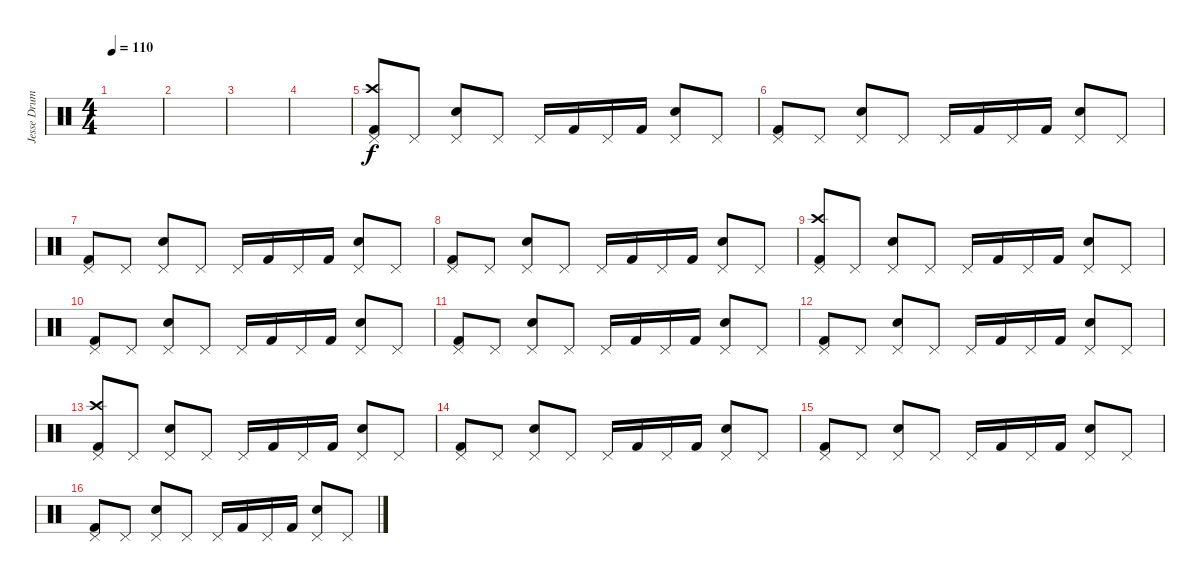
\track ("Jesse Drums" "Jesse Drum") {instrument percussion}
\staff {score}
\articulation defaults
\ts (4 4)
\tempo 110
\clef neutral
\ks c
|
|
|
|
("Pedal Hi-Hat (hit)" "Crash high (hit)" "Kick (hit) 2").8 "Pedal Hi-Hat (hit)".8 ("Pedal Hi-Hat (hit)" "Electric Snare (hit)").8 "Pedal Hi-Hat (hit)".8 "Pedal Hi-Hat (hit)".16 "Kick (hit) 2".16 "Pedal Hi-Hat (hit)".16 "Kick (hit) 2".16 ("Pedal Hi-Hat (hit)" "Electric Snare (hit)").8 "Pedal Hi-Hat (hit)".8 |
("Pedal Hi-Hat (hit)" "Kick (hit) 2").8 "Pedal Hi-Hat (hit)".8 ("Pedal Hi-Hat (hit)" "Electric Snare (hit)").8 "Pedal Hi-Hat (hit)".8 "Pedal Hi-Hat (hit)".16 "Kick (hit) 2".16 "Pedal Hi-Hat (hit)".16 "Kick (hit) 2".16 ("Pedal Hi-Hat (hit)" "Electric Snare (hit)").8 "Pedal Hi-Hat (hit)".8 |
("Pedal Hi-Hat (hit)" "Kick (hit) 2").8 "Pedal Hi-Hat (hit)".8 ("Pedal Hi-Hat (hit)" "Electric Snare (hit)").8 "Pedal Hi-Hat (hit)".8 "Pedal Hi-Hat (hit)".16 "Kick (hit) 2".16 "Pedal Hi-Hat (hit)".16 "Kick (hit) 2".16 ("Pedal Hi-Hat (hit)" "Electric Snare (hit)").8 "Pedal Hi-Hat (hit)".8 |
("Pedal Hi-Hat (hit)" "Kick (hit) 2").8 "Pedal Hi-Hat (hit)".8 ("Pedal Hi-Hat (hit)" "Electric Snare (hit)").8 "Pedal Hi-Hat (hit)".8 "Pedal Hi-Hat (hit)".16 "Kick (hit) 2".16 "Pedal Hi-Hat (hit)".16 "Kick (hit) 2".16 ("Pedal Hi-Hat (hit)" "Electric Snare (hit)").8 "Pedal Hi-Hat (hit)".8 |
("Pedal Hi-Hat (hit)" "Crash high (hit)" "Kick (hit) 2").8 "Pedal Hi-Hat (hit)".8 ("Pedal Hi-Hat (hit)" "Electric Snare (hit)").8 "Pedal Hi-Hat (hit)".8 "Pedal Hi-Hat (hit)".16 "Kick (hit) 2".16 "Pedal Hi-Hat (hit)".16 "Kick (hit) 2".16 ("Pedal Hi-Hat (hit)" "Electric Snare (hit)").8 "Pedal Hi-Hat (hit)".8 |
("Pedal Hi-Hat (hit)" "Kick (hit) 2").8 "Pedal Hi-Hat (hit)".8 ("Pedal Hi-Hat (hit)" "Electric Snare (hit)").8 "Pedal Hi-Hat (hit)".8 "Pedal Hi-Hat (hit)".16 "Kick (hit) 2".16 "Pedal Hi-Hat (hit)".16 "Kick (hit) 2".16 ("Pedal Hi-Hat (hit)" "Electric Snare (hit)").8 "Pedal Hi-Hat (hit)".8 |
("Pedal Hi-Hat (hit)" "Kick (hit) 2").8 "Pedal Hi-Hat (hit)".8 ("Pedal Hi-Hat (hit)" "Electric Snare (hit)").8 "Pedal Hi-Hat (hit)".8 "Pedal Hi-Hat (hit)".16 "Kick (hit) 2".16 "Pedal Hi-Hat (hit)".16 "Kick (hit) 2".16 ("Pedal Hi-Hat (hit)" "Electric Snare (hit)").8 "Pedal Hi-Hat (hit)".8 |
("Pedal Hi-Hat (hit)" "Kick (hit) 2").8 "Pedal Hi-Hat (hit)".8 ("Pedal Hi-Hat (hit)" "Electric Snare (hit)").8 "Pedal Hi-Hat (hit)".8 "Pedal Hi-Hat (hit)".16 "Kick (hit) 2".16 "Pedal Hi-Hat (hit)".16 "Kick (hit) 2".16 ("Pedal Hi-Hat (hit)" "Electric Snare (hit)").8 "Pedal Hi-Hat (hit)".8 |
("Pedal Hi-Hat (hit)" "Crash high (hit)" "Kick (hit) 2").8 "Pedal Hi-Hat (hit)".8 ("Pedal Hi-Hat (hit)" "Electric Snare (hit)").8 "Pedal Hi-Hat (hit)".8 "Pedal Hi-Hat (hit)".16 "Kick (hit) 2".16 "Pedal Hi-Hat (hit)".16 "Kick (hit) 2".16 ("Pedal Hi-Hat (hit)" "Electric Snare (hit)").8 "Pedal Hi-Hat (hit)".8 |
("Pedal Hi-Hat (hit)" "Kick (hit) 2").8 "Pedal Hi-Hat (hit)".8 ("Pedal Hi-Hat (hit)" "Electric Snare (hit)").8 "Pedal Hi-Hat (hit)".8 "Pedal Hi-Hat (hit)".16 "Kick (hit) 2".16 "Pedal Hi-Hat (hit)".16 "Kick (hit) 2".16 ("Pedal Hi-Hat (hit)" "Electric Snare (hit)").8 "Pedal Hi-Hat (hit)".8 |
("Pedal Hi-Hat (hit)" "Kick (hit) 2").8 "Pedal Hi-Hat (hit)".8 ("Pedal Hi-Hat (hit)" "Electric Snare (hit)").8 "Pedal Hi-Hat (hit)".8 "Pedal Hi-Hat (hit)".16 "Kick (hit) 2".16 "Pedal Hi-Hat (hit)".16 "Kick (hit) 2".16 ("Pedal Hi-Hat (hit)" "Electric Snare (hit)").8 "Pedal Hi-Hat (hit)".8 |
("Pedal Hi-Hat (hit)" "Kick (hit) 2").8 "Pedal Hi-Hat (hit)".8 ("Pedal Hi-Hat (hit)" "Electric Snare (hit)").8 "Pedal Hi-Hat (hit)".8 "Pedal Hi-Hat (hit)".16 "Kick (hit) 2".16 "Pedal Hi-Hat (hit)".16 "Kick (hit) 2".16 ("Pedal Hi-Hat (hit)" "Electric Snare (hit)").8 "Pedal Hi-Hat (hit)".8
